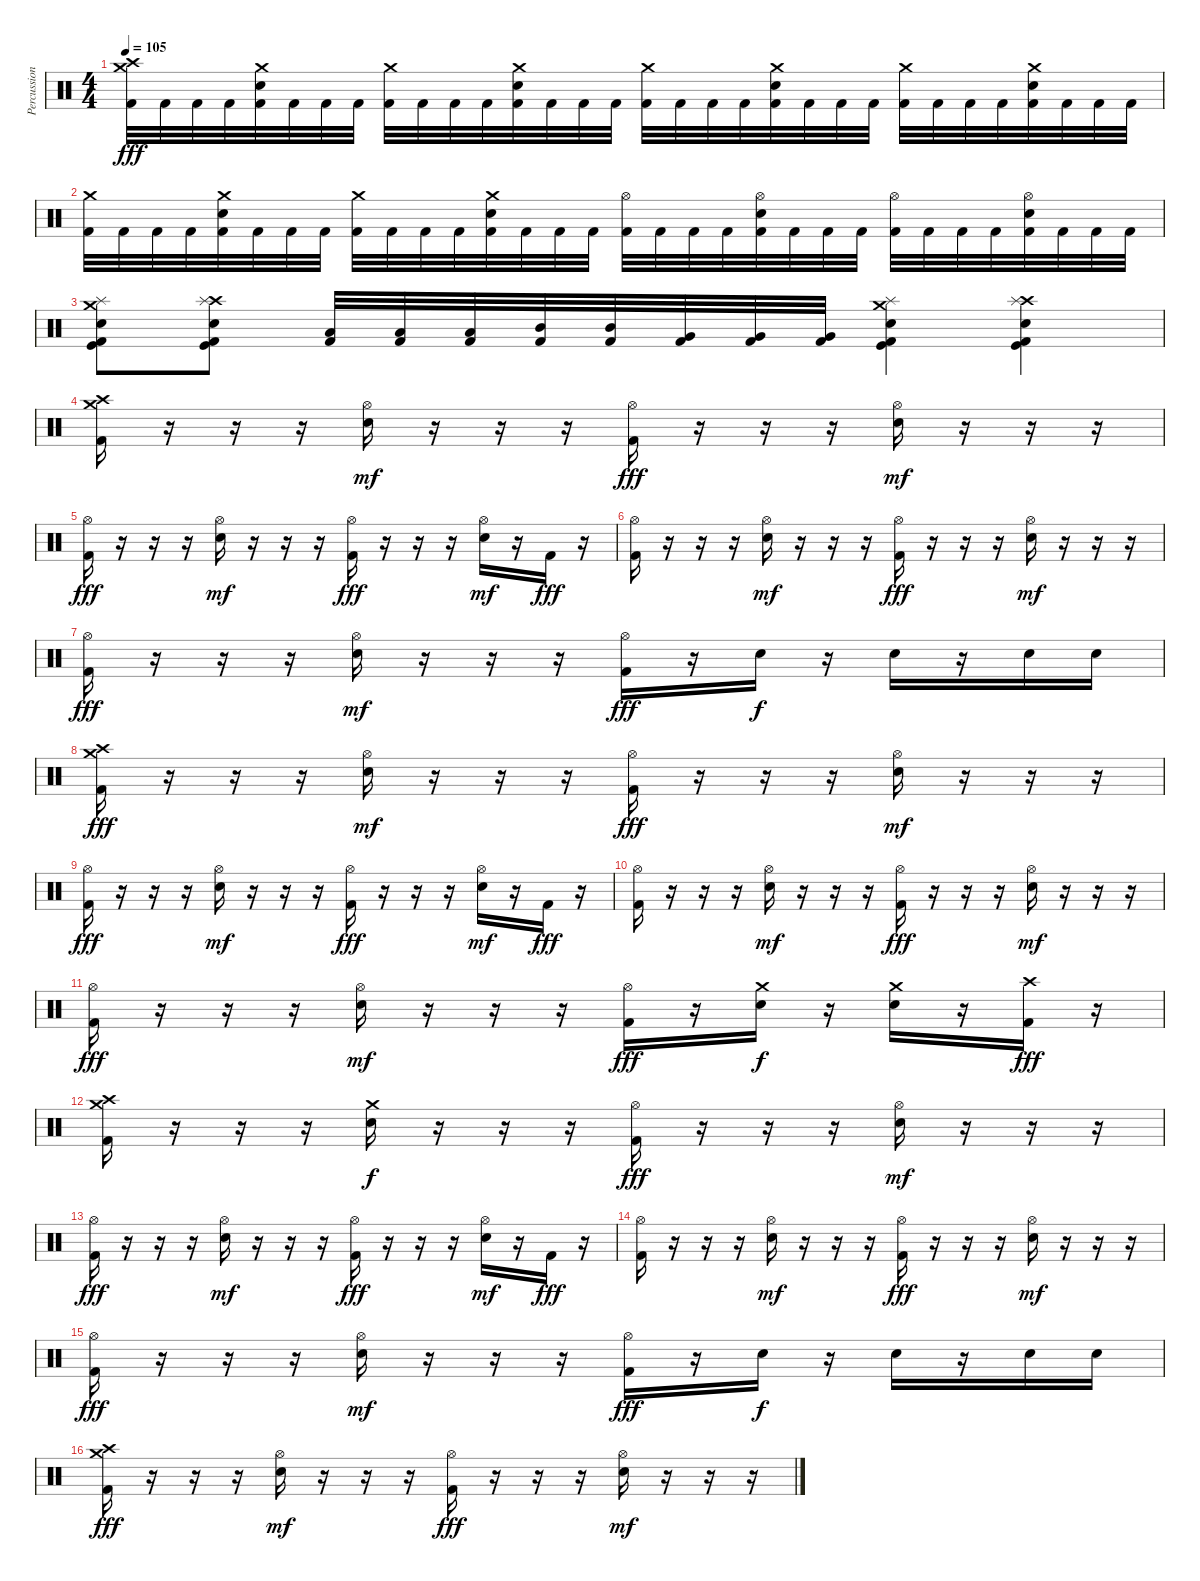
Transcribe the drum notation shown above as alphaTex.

\track ("Percussions" "Percussion") {instrument percussion}
\staff {score}
\articulation defaults
\ts (4 4)
\tempo 105
\clef neutral
\ks c
("Crash high (hit)" "Crash medium (hit)" "Kick (hit) 2").32{dy fff} "Kick (hit) 2".32 "Kick (hit) 2".32 "Kick (hit) 2".32 ("Crash medium (hit)" "Electric Snare (hit)" "Kick (hit) 2").32 "Kick (hit) 2".32 "Kick (hit) 2".32 "Kick (hit) 2".32 ("Crash medium (hit)" "Kick (hit) 2").32 "Kick (hit) 2".32 "Kick (hit) 2".32 "Kick (hit) 2".32 ("Crash medium (hit)" "Electric Snare (hit)" "Kick (hit) 2").32 "Kick (hit) 2".32 "Kick (hit) 2".32 "Kick (hit) 2".32 ("Crash medium (hit)" "Kick (hit) 2").32 "Kick (hit) 2".32 "Kick (hit) 2".32 "Kick (hit) 2".32 ("Crash medium (hit)" "Electric Snare (hit)" "Kick (hit) 2").32 "Kick (hit) 2".32 "Kick (hit) 2".32 "Kick (hit) 2".32 ("Crash medium (hit)" "Kick (hit) 2").32 "Kick (hit) 2".32 "Kick (hit) 2".32 "Kick (hit) 2".32 ("Crash medium (hit)" "Electric Snare (hit)" "Kick (hit) 2").32 "Kick (hit) 2".32 "Kick (hit) 2".32 "Kick (hit) 2".32 |
("Crash medium (hit)" "Kick (hit) 2").32 "Kick (hit) 2".32 "Kick (hit) 2".32 "Kick (hit) 2".32 ("Crash medium (hit)" "Electric Snare (hit)" "Kick (hit) 2").32 "Kick (hit) 2".32 "Kick (hit) 2".32 "Kick (hit) 2".32 ("Crash medium (hit)" "Kick (hit) 2").32 "Kick (hit) 2".32 "Kick (hit) 2".32 "Kick (hit) 2".32 ("Crash medium (hit)" "Electric Snare (hit)" "Kick (hit) 2").32 "Kick (hit) 2".32 "Kick (hit) 2".32 "Kick (hit) 2".32 ("Hi-Hat (open)" "Kick (hit) 2").32 "Kick (hit) 2".32 "Kick (hit) 2".32 "Kick (hit) 2".32 ("Hi-Hat (open)" "Electric Snare (hit)" "Kick (hit) 2").32 "Kick (hit) 2".32 "Kick (hit) 2".32 "Kick (hit) 2".32 ("Hi-Hat (open)" "Kick (hit) 2").32 "Kick (hit) 2".32 "Kick (hit) 2".32 "Kick (hit) 2".32 ("Hi-Hat (open)" "Electric Snare (hit)" "Kick (hit) 2").32 "Kick (hit) 2".32 "Kick (hit) 2".32 "Kick (hit) 2".32 |
("Crash medium (hit)" "Splash (hit)" "Snare (hit) 2" "Kick (hit)" "Kick (hit) 2").8 ("Crash high (hit)" "Splash (hit)" "Snare (hit) 2" "Kick (hit)" "Kick (hit) 2").8 ("Low Tom (hit)" "Kick (hit) 2").32 ("Low Tom (hit)" "Kick (hit) 2").32 ("Low Tom (hit)" "Kick (hit) 2").32 ("Mid Tom (hit)" "Kick (hit) 2").32 ("Mid Tom (hit)" "Kick (hit) 2").32 ("Very Low Tom (hit)" "Kick (hit) 2").32 ("Very Low Tom (hit)" "Kick (hit) 2").32 ("Very Low Tom (hit)" "Kick (hit) 2").32 ("Crash medium (hit)" "Splash (hit)" "Electric Snare (hit)" "Kick (hit)" "Kick (hit) 2").4 ("Crash high (hit)" "Splash (hit)" "Electric Snare (hit)" "Kick (hit)" "Kick (hit) 2").4 |
("Crash medium (hit)" "Crash high (hit)" "Kick (hit) 2").16 r.16 r.16 r.16 ("Hi-Hat (open)" "Electric Snare (hit)").16{dy mf} r.16 r.16 r.16 ("Hi-Hat (open)" "Kick (hit) 2").16{dy fff} r.16 r.16 r.16 ("Hi-Hat (open)" "Electric Snare (hit)").16{dy mf} r.16 r.16 r.16 |
("Hi-Hat (open)" "Kick (hit) 2").16{dy fff} r.16 r.16 r.16 ("Hi-Hat (open)" "Electric Snare (hit)").16{dy mf} r.16 r.16 r.16 ("Hi-Hat (open)" "Kick (hit) 2").16{dy fff} r.16 r.16 r.16 ("Hi-Hat (open)" "Electric Snare (hit)").16{dy mf} r.16 "Kick (hit) 2".16{dy fff} r.16 |
("Hi-Hat (open)" "Kick (hit) 2").16 r.16 r.16 r.16 ("Hi-Hat (open)" "Electric Snare (hit)").16{dy mf} r.16 r.16 r.16 ("Hi-Hat (open)" "Kick (hit) 2").16{dy fff} r.16 r.16 r.16 ("Hi-Hat (open)" "Electric Snare (hit)").16{dy mf} r.16 r.16 r.16 |
("Hi-Hat (open)" "Kick (hit) 2").16{dy fff} r.16 r.16 r.16 ("Hi-Hat (open)" "Electric Snare (hit)").16{dy mf} r.16 r.16 r.16 ("Hi-Hat (open)" "Kick (hit) 2").16{dy fff} r.16 "Electric Snare (hit)".16{dy f} r.16 "Electric Snare (hit)".16 r.16 "Electric Snare (hit)".16 "Electric Snare (hit)".16 |
("Crash medium (hit)" "Crash high (hit)" "Kick (hit) 2").16{dy fff} r.16 r.16 r.16 ("Hi-Hat (open)" "Electric Snare (hit)").16{dy mf} r.16 r.16 r.16 ("Hi-Hat (open)" "Kick (hit) 2").16{dy fff} r.16 r.16 r.16 ("Hi-Hat (open)" "Electric Snare (hit)").16{dy mf} r.16 r.16 r.16 |
("Hi-Hat (open)" "Kick (hit) 2").16{dy fff} r.16 r.16 r.16 ("Hi-Hat (open)" "Electric Snare (hit)").16{dy mf} r.16 r.16 r.16 ("Hi-Hat (open)" "Kick (hit) 2").16{dy fff} r.16 r.16 r.16 ("Hi-Hat (open)" "Electric Snare (hit)").16{dy mf} r.16 "Kick (hit) 2".16{dy fff} r.16 |
("Hi-Hat (open)" "Kick (hit) 2").16 r.16 r.16 r.16 ("Hi-Hat (open)" "Electric Snare (hit)").16{dy mf} r.16 r.16 r.16 ("Hi-Hat (open)" "Kick (hit) 2").16{dy fff} r.16 r.16 r.16 ("Hi-Hat (open)" "Electric Snare (hit)").16{dy mf} r.16 r.16 r.16 |
("Hi-Hat (open)" "Kick (hit) 2").16{dy fff} r.16 r.16 r.16 ("Hi-Hat (open)" "Electric Snare (hit)").16{dy mf} r.16 r.16 r.16 ("Hi-Hat (open)" "Kick (hit) 2").16{dy fff} r.16 ("Crash medium (hit)" "Electric Snare (hit)").16{dy f} r.16 ("Crash medium (hit)" "Electric Snare (hit)").16 r.16 ("Crash high (hit)" "Kick (hit) 2").16{dy fff} r.16 |
("Crash medium (hit)" "Crash high (hit)" "Kick (hit) 2").16 r.16 r.16 r.16 ("Crash medium (hit)" "Electric Snare (hit)").16{dy f} r.16 r.16 r.16 ("Hi-Hat (open)" "Kick (hit) 2").16{dy fff} r.16 r.16 r.16 ("Hi-Hat (open)" "Electric Snare (hit)").16{dy mf} r.16 r.16 r.16 |
("Hi-Hat (open)" "Kick (hit) 2").16{dy fff} r.16 r.16 r.16 ("Hi-Hat (open)" "Electric Snare (hit)").16{dy mf} r.16 r.16 r.16 ("Hi-Hat (open)" "Kick (hit) 2").16{dy fff} r.16 r.16 r.16 ("Hi-Hat (open)" "Electric Snare (hit)").16{dy mf} r.16 "Kick (hit) 2".16{dy fff} r.16 |
("Hi-Hat (open)" "Kick (hit) 2").16 r.16 r.16 r.16 ("Hi-Hat (open)" "Electric Snare (hit)").16{dy mf} r.16 r.16 r.16 ("Hi-Hat (open)" "Kick (hit) 2").16{dy fff} r.16 r.16 r.16 ("Hi-Hat (open)" "Electric Snare (hit)").16{dy mf} r.16 r.16 r.16 |
("Hi-Hat (open)" "Kick (hit) 2").16{dy fff} r.16 r.16 r.16 ("Hi-Hat (open)" "Electric Snare (hit)").16{dy mf} r.16 r.16 r.16 ("Hi-Hat (open)" "Kick (hit) 2").16{dy fff} r.16 "Electric Snare (hit)".16{dy f} r.16 "Electric Snare (hit)".16 r.16 "Electric Snare (hit)".16 "Electric Snare (hit)".16 |
("Crash medium (hit)" "Crash high (hit)" "Kick (hit) 2").16{dy fff} r.16 r.16 r.16 ("Hi-Hat (open)" "Electric Snare (hit)").16{dy mf} r.16 r.16 r.16 ("Hi-Hat (open)" "Kick (hit) 2").16{dy fff} r.16 r.16 r.16 ("Hi-Hat (open)" "Electric Snare (hit)").16{dy mf} r.16 r.16 r.16
